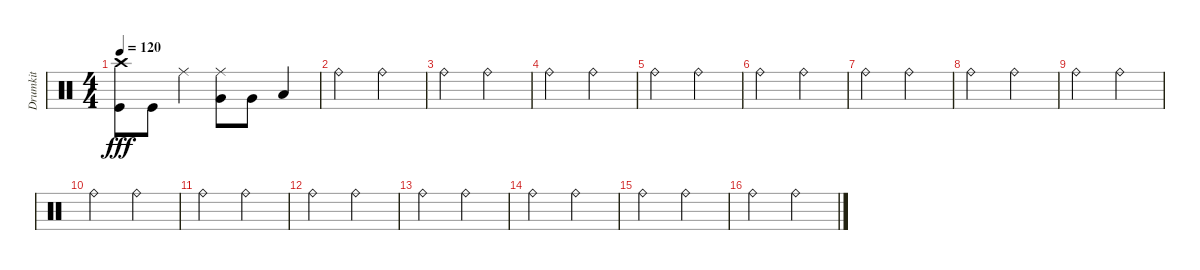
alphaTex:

\track ("Drumkit" "Drumkit") {instrument percussion}
\staff {score}
\articulation defaults
\ts (4 4)
\tempo 120
\clef neutral
\ks c
("Kick (hit)" "Crash high (hit)").8{dy fff} "Kick (hit)".8 "Ride (middle)".4 ("Ride (middle)" "Very Low Tom (hit)").8 "Very Low Tom (hit)".8 "Low Tom (hit)".4 |
"Ride (bell)".2 "Ride (bell)".2 |
"Ride (bell)".2 "Ride (bell)".2 |
"Ride (bell)".2 "Ride (bell)".2 |
"Ride (bell)".2 "Ride (bell)".2 |
"Ride (bell)".2 "Ride (bell)".2 |
"Ride (bell)".2 "Ride (bell)".2 |
"Ride (bell)".2 "Ride (bell)".2 |
"Ride (bell)".2 "Ride (bell)".2 |
"Ride (bell)".2 "Ride (bell)".2 |
"Ride (bell)".2 "Ride (bell)".2 |
"Ride (bell)".2 "Ride (bell)".2 |
"Ride (bell)".2 "Ride (bell)".2 |
"Ride (bell)".2 "Ride (bell)".2 |
"Ride (bell)".2 "Ride (bell)".2 |
"Ride (bell)".2 "Ride (bell)".2
